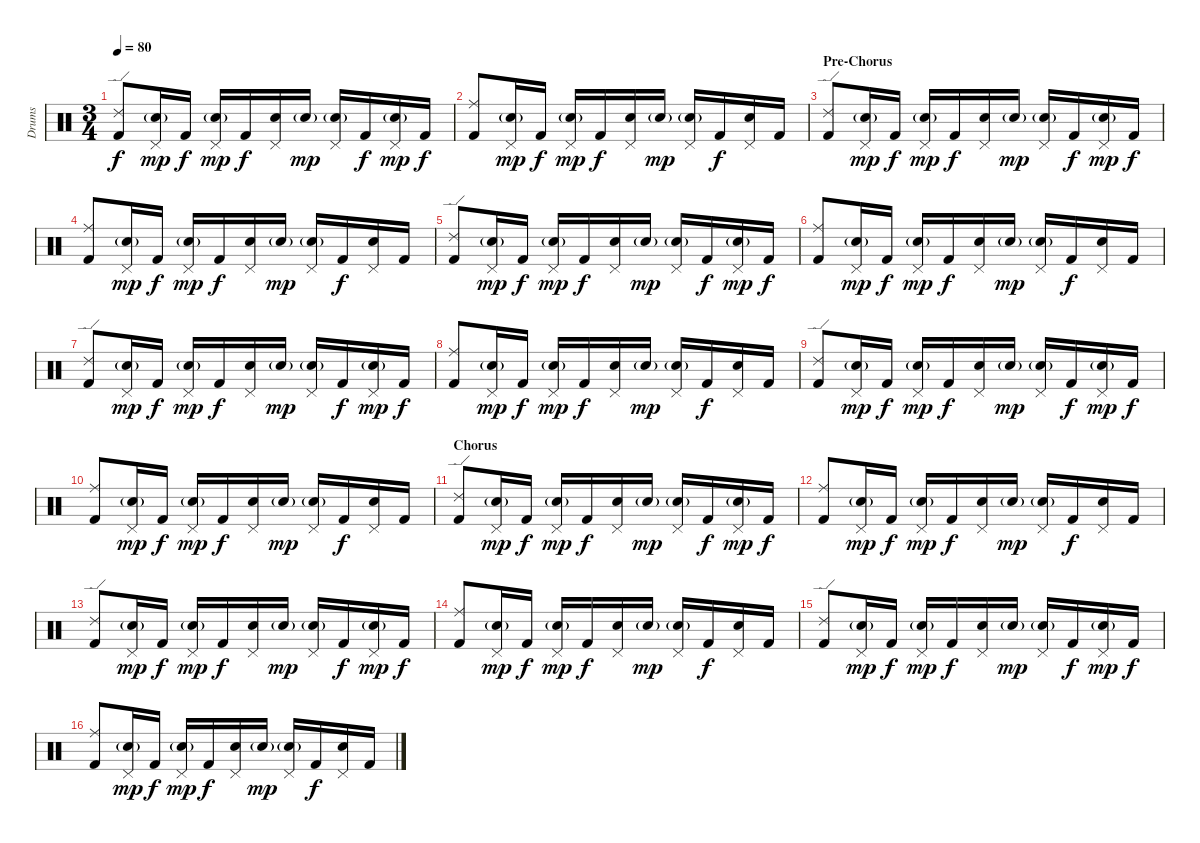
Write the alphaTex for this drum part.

\track ("Drums" "Drums") {instrument percussion}
\staff {score}
\articulation defaults
\ts (3 4)
\tempo 80
\clef neutral
\ks c
("Ride (edge) 2" "Kick (hit) 2").8{dy f} ("Pedal Hi-Hat (hit)" "Snare (hit) 2"{g}).16{dy mp} "Kick (hit) 2".16{dy f} ("Pedal Hi-Hat (hit)" "Snare (hit) 2"{g}).16{dy mp} "Kick (hit) 2".16{dy f} ("Pedal Hi-Hat (hit)" "Snare (hit) 2").16 "Snare (hit) 2"{g}.16{dy mp} ("Pedal Hi-Hat (hit)" "Snare (hit) 2"{g}).16 "Kick (hit) 2".16{dy f} ("Pedal Hi-Hat (hit)" "Snare (hit) 2"{g}).16{dy mp} "Kick (hit) 2".16{dy f} |
("Ride (middle)" "Kick (hit) 2").8 ("Pedal Hi-Hat (hit)" "Snare (hit) 2"{g}).16{dy mp} "Kick (hit) 2".16{dy f} ("Pedal Hi-Hat (hit)" "Snare (hit) 2"{g}).16{dy mp} "Kick (hit) 2".16{dy f} ("Pedal Hi-Hat (hit)" "Snare (hit) 2").16 "Snare (hit) 2"{g}.16{dy mp} ("Pedal Hi-Hat (hit)" "Snare (hit) 2"{g}).16 "Kick (hit) 2".16{dy f} ("Pedal Hi-Hat (hit)" "Snare (hit) 2").16 "Kick (hit) 2".16 |
\section ("" "Pre-Chorus")
("Ride (edge) 2" "Kick (hit) 2").8 ("Pedal Hi-Hat (hit)" "Snare (hit) 2"{g}).16{dy mp} "Kick (hit) 2".16{dy f} ("Pedal Hi-Hat (hit)" "Snare (hit) 2"{g}).16{dy mp} "Kick (hit) 2".16{dy f} ("Pedal Hi-Hat (hit)" "Snare (hit) 2").16 "Snare (hit) 2"{g}.16{dy mp} ("Pedal Hi-Hat (hit)" "Snare (hit) 2"{g}).16 "Kick (hit) 2".16{dy f} ("Pedal Hi-Hat (hit)" "Snare (hit) 2"{g}).16{dy mp} "Kick (hit) 2".16{dy f} |
("Ride (middle)" "Kick (hit) 2").8 ("Pedal Hi-Hat (hit)" "Snare (hit) 2"{g}).16{dy mp} "Kick (hit) 2".16{dy f} ("Pedal Hi-Hat (hit)" "Snare (hit) 2"{g}).16{dy mp} "Kick (hit) 2".16{dy f} ("Pedal Hi-Hat (hit)" "Snare (hit) 2").16 "Snare (hit) 2"{g}.16{dy mp} ("Pedal Hi-Hat (hit)" "Snare (hit) 2"{g}).16 "Kick (hit) 2".16{dy f} ("Pedal Hi-Hat (hit)" "Snare (hit) 2").16 "Kick (hit) 2".16 |
("Ride (edge) 2" "Kick (hit) 2").8 ("Pedal Hi-Hat (hit)" "Snare (hit) 2"{g}).16{dy mp} "Kick (hit) 2".16{dy f} ("Pedal Hi-Hat (hit)" "Snare (hit) 2"{g}).16{dy mp} "Kick (hit) 2".16{dy f} ("Pedal Hi-Hat (hit)" "Snare (hit) 2").16 "Snare (hit) 2"{g}.16{dy mp} ("Pedal Hi-Hat (hit)" "Snare (hit) 2"{g}).16 "Kick (hit) 2".16{dy f} ("Pedal Hi-Hat (hit)" "Snare (hit) 2"{g}).16{dy mp} "Kick (hit) 2".16{dy f} |
("Ride (middle)" "Kick (hit) 2").8 ("Pedal Hi-Hat (hit)" "Snare (hit) 2"{g}).16{dy mp} "Kick (hit) 2".16{dy f} ("Pedal Hi-Hat (hit)" "Snare (hit) 2"{g}).16{dy mp} "Kick (hit) 2".16{dy f} ("Pedal Hi-Hat (hit)" "Snare (hit) 2").16 "Snare (hit) 2"{g}.16{dy mp} ("Pedal Hi-Hat (hit)" "Snare (hit) 2"{g}).16 "Kick (hit) 2".16{dy f} ("Pedal Hi-Hat (hit)" "Snare (hit) 2").16 "Kick (hit) 2".16 |
("Ride (edge) 2" "Kick (hit) 2").8 ("Pedal Hi-Hat (hit)" "Snare (hit) 2"{g}).16{dy mp} "Kick (hit) 2".16{dy f} ("Pedal Hi-Hat (hit)" "Snare (hit) 2"{g}).16{dy mp} "Kick (hit) 2".16{dy f} ("Pedal Hi-Hat (hit)" "Snare (hit) 2").16 "Snare (hit) 2"{g}.16{dy mp} ("Pedal Hi-Hat (hit)" "Snare (hit) 2"{g}).16 "Kick (hit) 2".16{dy f} ("Pedal Hi-Hat (hit)" "Snare (hit) 2"{g}).16{dy mp} "Kick (hit) 2".16{dy f} |
("Ride (middle)" "Kick (hit) 2").8 ("Pedal Hi-Hat (hit)" "Snare (hit) 2"{g}).16{dy mp} "Kick (hit) 2".16{dy f} ("Pedal Hi-Hat (hit)" "Snare (hit) 2"{g}).16{dy mp} "Kick (hit) 2".16{dy f} ("Pedal Hi-Hat (hit)" "Snare (hit) 2").16 "Snare (hit) 2"{g}.16{dy mp} ("Pedal Hi-Hat (hit)" "Snare (hit) 2"{g}).16 "Kick (hit) 2".16{dy f} ("Pedal Hi-Hat (hit)" "Snare (hit) 2").16 "Kick (hit) 2".16 |
("Ride (edge) 2" "Kick (hit) 2").8 ("Pedal Hi-Hat (hit)" "Snare (hit) 2"{g}).16{dy mp} "Kick (hit) 2".16{dy f} ("Pedal Hi-Hat (hit)" "Snare (hit) 2"{g}).16{dy mp} "Kick (hit) 2".16{dy f} ("Pedal Hi-Hat (hit)" "Snare (hit) 2").16 "Snare (hit) 2"{g}.16{dy mp} ("Pedal Hi-Hat (hit)" "Snare (hit) 2"{g}).16 "Kick (hit) 2".16{dy f} ("Pedal Hi-Hat (hit)" "Snare (hit) 2"{g}).16{dy mp} "Kick (hit) 2".16{dy f} |
("Ride (middle)" "Kick (hit) 2").8 ("Pedal Hi-Hat (hit)" "Snare (hit) 2"{g}).16{dy mp} "Kick (hit) 2".16{dy f} ("Pedal Hi-Hat (hit)" "Snare (hit) 2"{g}).16{dy mp} "Kick (hit) 2".16{dy f} ("Pedal Hi-Hat (hit)" "Snare (hit) 2").16 "Snare (hit) 2"{g}.16{dy mp} ("Pedal Hi-Hat (hit)" "Snare (hit) 2"{g}).16 "Kick (hit) 2".16{dy f} ("Pedal Hi-Hat (hit)" "Snare (hit) 2").16 "Kick (hit) 2".16 |
\section ("" "Chorus")
("Ride (edge) 2" "Kick (hit) 2").8 ("Pedal Hi-Hat (hit)" "Snare (hit) 2"{g}).16{dy mp} "Kick (hit) 2".16{dy f} ("Pedal Hi-Hat (hit)" "Snare (hit) 2"{g}).16{dy mp} "Kick (hit) 2".16{dy f} ("Pedal Hi-Hat (hit)" "Snare (hit) 2").16 "Snare (hit) 2"{g}.16{dy mp} ("Pedal Hi-Hat (hit)" "Snare (hit) 2"{g}).16 "Kick (hit) 2".16{dy f} ("Pedal Hi-Hat (hit)" "Snare (hit) 2"{g}).16{dy mp} "Kick (hit) 2".16{dy f} |
("Ride (middle)" "Kick (hit) 2").8 ("Pedal Hi-Hat (hit)" "Snare (hit) 2"{g}).16{dy mp} "Kick (hit) 2".16{dy f} ("Pedal Hi-Hat (hit)" "Snare (hit) 2"{g}).16{dy mp} "Kick (hit) 2".16{dy f} ("Pedal Hi-Hat (hit)" "Snare (hit) 2").16 "Snare (hit) 2"{g}.16{dy mp} ("Pedal Hi-Hat (hit)" "Snare (hit) 2"{g}).16 "Kick (hit) 2".16{dy f} ("Pedal Hi-Hat (hit)" "Snare (hit) 2").16 "Kick (hit) 2".16 |
("Ride (edge) 2" "Kick (hit) 2").8 ("Pedal Hi-Hat (hit)" "Snare (hit) 2"{g}).16{dy mp} "Kick (hit) 2".16{dy f} ("Pedal Hi-Hat (hit)" "Snare (hit) 2"{g}).16{dy mp} "Kick (hit) 2".16{dy f} ("Pedal Hi-Hat (hit)" "Snare (hit) 2").16 "Snare (hit) 2"{g}.16{dy mp} ("Pedal Hi-Hat (hit)" "Snare (hit) 2"{g}).16 "Kick (hit) 2".16{dy f} ("Pedal Hi-Hat (hit)" "Snare (hit) 2"{g}).16{dy mp} "Kick (hit) 2".16{dy f} |
("Ride (middle)" "Kick (hit) 2").8 ("Pedal Hi-Hat (hit)" "Snare (hit) 2"{g}).16{dy mp} "Kick (hit) 2".16{dy f} ("Pedal Hi-Hat (hit)" "Snare (hit) 2"{g}).16{dy mp} "Kick (hit) 2".16{dy f} ("Pedal Hi-Hat (hit)" "Snare (hit) 2").16 "Snare (hit) 2"{g}.16{dy mp} ("Pedal Hi-Hat (hit)" "Snare (hit) 2"{g}).16 "Kick (hit) 2".16{dy f} ("Pedal Hi-Hat (hit)" "Snare (hit) 2").16 "Kick (hit) 2".16 |
("Ride (edge) 2" "Kick (hit) 2").8 ("Pedal Hi-Hat (hit)" "Snare (hit) 2"{g}).16{dy mp} "Kick (hit) 2".16{dy f} ("Pedal Hi-Hat (hit)" "Snare (hit) 2"{g}).16{dy mp} "Kick (hit) 2".16{dy f} ("Pedal Hi-Hat (hit)" "Snare (hit) 2").16 "Snare (hit) 2"{g}.16{dy mp} ("Pedal Hi-Hat (hit)" "Snare (hit) 2"{g}).16 "Kick (hit) 2".16{dy f} ("Pedal Hi-Hat (hit)" "Snare (hit) 2"{g}).16{dy mp} "Kick (hit) 2".16{dy f} |
("Ride (middle)" "Kick (hit) 2").8 ("Pedal Hi-Hat (hit)" "Snare (hit) 2"{g}).16{dy mp} "Kick (hit) 2".16{dy f} ("Pedal Hi-Hat (hit)" "Snare (hit) 2"{g}).16{dy mp} "Kick (hit) 2".16{dy f} ("Pedal Hi-Hat (hit)" "Snare (hit) 2").16 "Snare (hit) 2"{g}.16{dy mp} ("Pedal Hi-Hat (hit)" "Snare (hit) 2"{g}).16 "Kick (hit) 2".16{dy f} ("Pedal Hi-Hat (hit)" "Snare (hit) 2").16 "Kick (hit) 2".16
